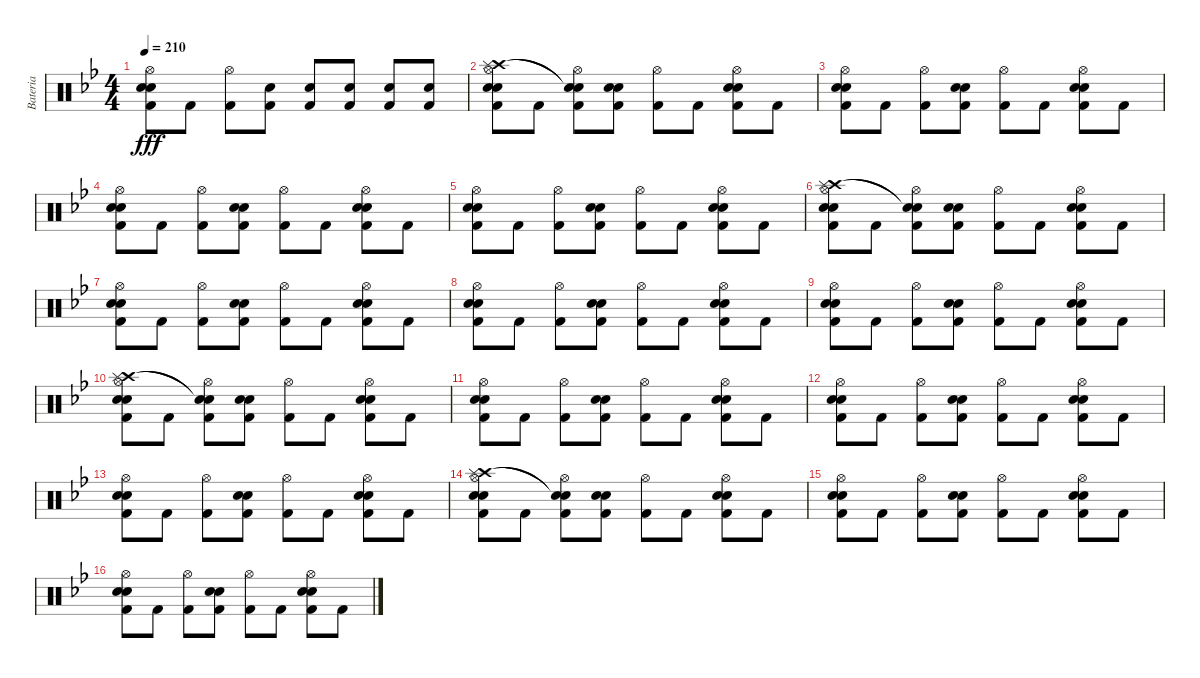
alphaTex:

\track ("Bateria" "Bateria") {instrument percussion}
\staff {score}
\articulation defaults
\ts (4 4)
\tempo 210
\clef neutral
\ks gminor
("Hi-Hat (open)" "Snare (hit) 2" "Kick (hit) 2" "Electric Snare (hit)").8{dy fff} "Kick (hit) 2".8 ("Hi-Hat (open)" "Kick (hit) 2").8 ("Snare (hit) 2" "Kick (hit) 2").8 ("Snare (hit) 2" "Kick (hit) 2").8 ("Snare (hit) 2" "Kick (hit) 2").8 ("Snare (hit) 2" "Kick (hit) 2").8 ("Snare (hit) 2" "Kick (hit) 2").8 |
("Hi-Hat (open)" "Crash high (hit)" "Splash (hit)" "Snare (hit) 2" "Electric Snare (hit)" "Kick (hit) 2").8 "Kick (hit) 2".8 ("Hi-Hat (open)" "Snare (hit)"{t} "Snare (hit)"{t} "Kick (hit) 2").8 ("Snare (hit) 2" "Electric Snare (hit)" "Kick (hit) 2").8 ("Hi-Hat (open)" "Kick (hit) 2").8 "Kick (hit) 2".8 ("Hi-Hat (open)" "Snare (hit) 2" "Electric Snare (hit)" "Kick (hit) 2").8 "Kick (hit) 2".8 |
("Hi-Hat (open)" "Snare (hit) 2" "Kick (hit) 2" "Electric Snare (hit)").8 "Kick (hit) 2".8 ("Hi-Hat (open)" "Kick (hit) 2").8 ("Snare (hit) 2" "Kick (hit) 2" "Electric Snare (hit)").8 ("Hi-Hat (open)" "Kick (hit) 2").8 "Kick (hit) 2".8 ("Hi-Hat (open)" "Snare (hit) 2" "Kick (hit) 2" "Electric Snare (hit)").8 "Kick (hit) 2".8 |
("Hi-Hat (open)" "Snare (hit) 2" "Kick (hit) 2" "Electric Snare (hit)").8 "Kick (hit) 2".8 ("Hi-Hat (open)" "Kick (hit) 2").8 ("Snare (hit) 2" "Kick (hit) 2" "Electric Snare (hit)").8 ("Hi-Hat (open)" "Kick (hit) 2").8 "Kick (hit) 2".8 ("Hi-Hat (open)" "Snare (hit) 2" "Kick (hit) 2" "Electric Snare (hit)").8 "Kick (hit) 2".8 |
("Hi-Hat (open)" "Snare (hit) 2" "Kick (hit) 2" "Electric Snare (hit)").8 "Kick (hit) 2".8 ("Hi-Hat (open)" "Kick (hit) 2").8 ("Snare (hit) 2" "Kick (hit) 2" "Electric Snare (hit)").8 ("Hi-Hat (open)" "Kick (hit) 2").8 "Kick (hit) 2".8 ("Hi-Hat (open)" "Snare (hit) 2" "Kick (hit) 2" "Electric Snare (hit)").8 "Kick (hit) 2".8 |
("Hi-Hat (open)" "Crash high (hit)" "Splash (hit)" "Snare (hit) 2" "Kick (hit) 2" "Electric Snare (hit)").8 "Kick (hit) 2".8 ("Hi-Hat (open)" "Snare (hit)"{t} "Snare (hit)"{t} "Kick (hit) 2").8 ("Snare (hit) 2" "Kick (hit) 2" "Electric Snare (hit)").8 ("Hi-Hat (open)" "Kick (hit) 2").8 "Kick (hit) 2".8 ("Hi-Hat (open)" "Snare (hit) 2" "Kick (hit) 2" "Electric Snare (hit)").8 "Kick (hit) 2".8 |
("Hi-Hat (open)" "Snare (hit) 2" "Kick (hit) 2" "Electric Snare (hit)").8 "Kick (hit) 2".8 ("Hi-Hat (open)" "Kick (hit) 2").8 ("Snare (hit) 2" "Kick (hit) 2" "Electric Snare (hit)").8 ("Hi-Hat (open)" "Kick (hit) 2").8 "Kick (hit) 2".8 ("Hi-Hat (open)" "Snare (hit) 2" "Kick (hit) 2" "Electric Snare (hit)").8 "Kick (hit) 2".8 |
("Hi-Hat (open)" "Snare (hit) 2" "Kick (hit) 2" "Electric Snare (hit)").8 "Kick (hit) 2".8 ("Hi-Hat (open)" "Kick (hit) 2").8 ("Snare (hit) 2" "Kick (hit) 2" "Electric Snare (hit)").8 ("Hi-Hat (open)" "Kick (hit) 2").8 "Kick (hit) 2".8 ("Hi-Hat (open)" "Snare (hit) 2" "Kick (hit) 2" "Electric Snare (hit)").8 "Kick (hit) 2".8 |
("Hi-Hat (open)" "Snare (hit) 2" "Kick (hit) 2" "Electric Snare (hit)").8 "Kick (hit) 2".8 ("Hi-Hat (open)" "Kick (hit) 2").8 ("Snare (hit) 2" "Kick (hit) 2" "Electric Snare (hit)").8 ("Hi-Hat (open)" "Kick (hit) 2").8 "Kick (hit) 2".8 ("Hi-Hat (open)" "Snare (hit) 2" "Kick (hit) 2" "Electric Snare (hit)").8 "Kick (hit) 2".8 |
("Hi-Hat (open)" "Crash high (hit)" "Splash (hit)" "Snare (hit) 2" "Kick (hit) 2" "Electric Snare (hit)").8 "Kick (hit) 2".8 ("Hi-Hat (open)" "Snare (hit)"{t} "Snare (hit)"{t} "Kick (hit) 2").8 ("Snare (hit) 2" "Kick (hit) 2" "Electric Snare (hit)").8 ("Hi-Hat (open)" "Kick (hit) 2").8 "Kick (hit) 2".8 ("Hi-Hat (open)" "Snare (hit) 2" "Kick (hit) 2" "Electric Snare (hit)").8 "Kick (hit) 2".8 |
("Hi-Hat (open)" "Snare (hit) 2" "Kick (hit) 2" "Electric Snare (hit)").8 "Kick (hit) 2".8 ("Hi-Hat (open)" "Kick (hit) 2").8 ("Snare (hit) 2" "Kick (hit) 2" "Electric Snare (hit)").8 ("Hi-Hat (open)" "Kick (hit) 2").8 "Kick (hit) 2".8 ("Hi-Hat (open)" "Snare (hit) 2" "Kick (hit) 2" "Electric Snare (hit)").8 "Kick (hit) 2".8 |
("Hi-Hat (open)" "Snare (hit) 2" "Kick (hit) 2" "Electric Snare (hit)").8 "Kick (hit) 2".8 ("Hi-Hat (open)" "Kick (hit) 2").8 ("Snare (hit) 2" "Kick (hit) 2" "Electric Snare (hit)").8 ("Hi-Hat (open)" "Kick (hit) 2").8 "Kick (hit) 2".8 ("Hi-Hat (open)" "Snare (hit) 2" "Kick (hit) 2" "Electric Snare (hit)").8 "Kick (hit) 2".8 |
("Hi-Hat (open)" "Snare (hit) 2" "Kick (hit) 2" "Electric Snare (hit)").8 "Kick (hit) 2".8 ("Hi-Hat (open)" "Kick (hit) 2").8 ("Snare (hit) 2" "Kick (hit) 2" "Electric Snare (hit)").8 ("Hi-Hat (open)" "Kick (hit) 2").8 "Kick (hit) 2".8 ("Hi-Hat (open)" "Snare (hit) 2" "Kick (hit) 2" "Electric Snare (hit)").8 "Kick (hit) 2".8 |
("Hi-Hat (open)" "Crash high (hit)" "Splash (hit)" "Snare (hit) 2" "Kick (hit) 2" "Electric Snare (hit)").8 "Kick (hit) 2".8 ("Hi-Hat (open)" "Snare (hit)"{t} "Snare (hit)"{t} "Kick (hit) 2").8 ("Snare (hit) 2" "Kick (hit) 2" "Electric Snare (hit)").8 ("Hi-Hat (open)" "Kick (hit) 2").8 "Kick (hit) 2".8 ("Hi-Hat (open)" "Snare (hit) 2" "Kick (hit) 2" "Electric Snare (hit)").8 "Kick (hit) 2".8 |
("Hi-Hat (open)" "Snare (hit) 2" "Kick (hit) 2" "Electric Snare (hit)").8 "Kick (hit) 2".8 ("Hi-Hat (open)" "Kick (hit) 2").8 ("Snare (hit) 2" "Kick (hit) 2" "Electric Snare (hit)").8 ("Hi-Hat (open)" "Kick (hit) 2").8 "Kick (hit) 2".8 ("Hi-Hat (open)" "Snare (hit) 2" "Kick (hit) 2" "Electric Snare (hit)").8 "Kick (hit) 2".8 |
("Hi-Hat (open)" "Snare (hit) 2" "Kick (hit) 2" "Electric Snare (hit)").8 "Kick (hit) 2".8 ("Hi-Hat (open)" "Kick (hit) 2").8 ("Snare (hit) 2" "Kick (hit) 2" "Electric Snare (hit)").8 ("Hi-Hat (open)" "Kick (hit) 2").8 "Kick (hit) 2".8 ("Hi-Hat (open)" "Snare (hit) 2" "Kick (hit) 2" "Electric Snare (hit)").8 "Kick (hit) 2".8
